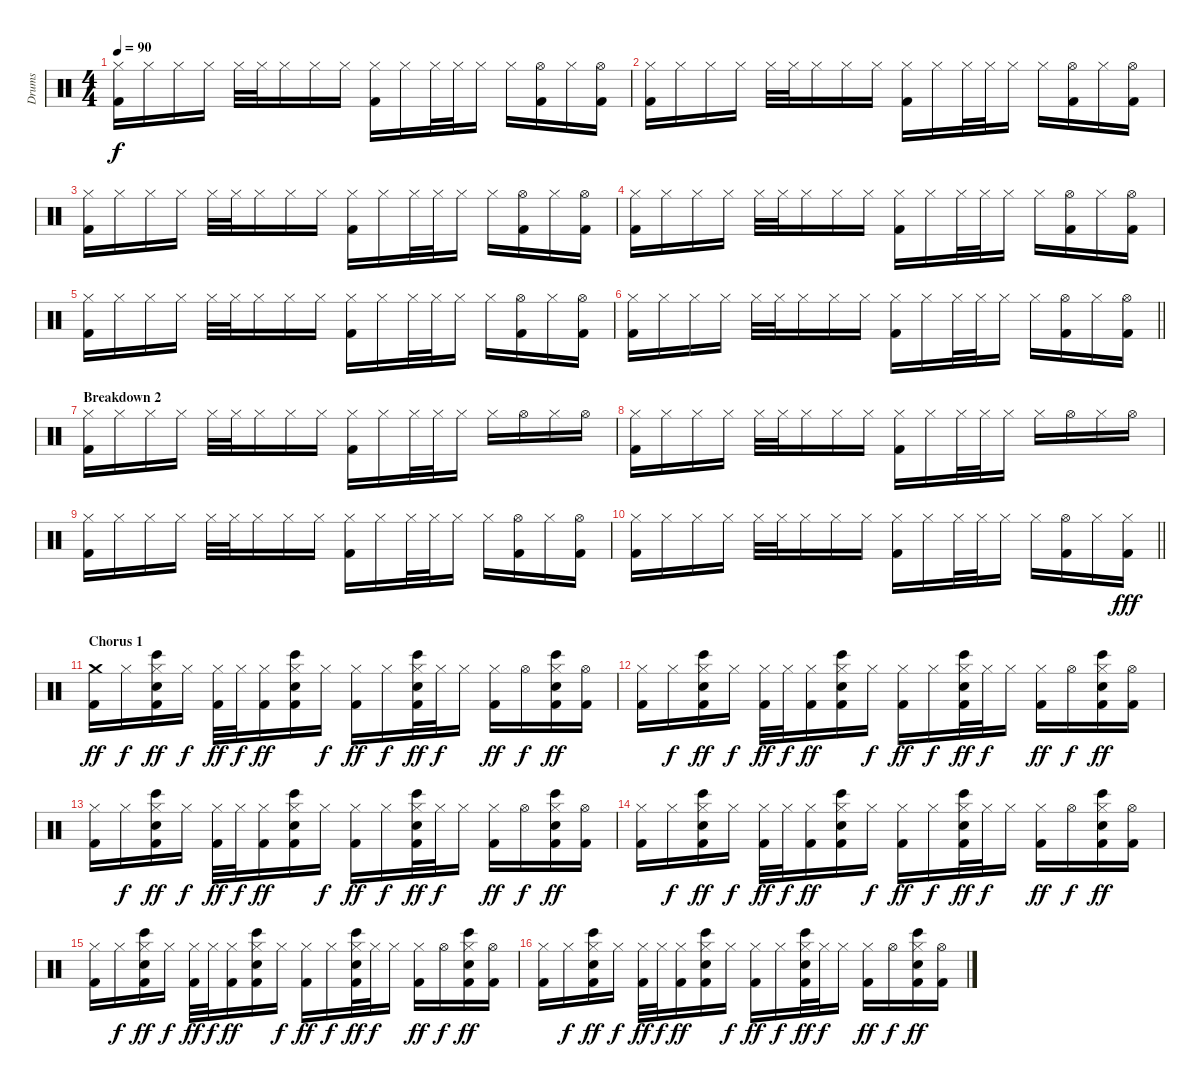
\track ("Drums" "Drums") {instrument percussion}
\staff {score}
\articulation defaults
\ts (4 4)
\tempo 90
\clef neutral
\ks c
("Hi-Hat (closed)" "Kick (hit) 2").16{dy f} "Hi-Hat (closed)".16 "Hi-Hat (closed)".16 "Hi-Hat (closed)".16 "Hi-Hat (closed)".32 "Hi-Hat (closed)".32 "Hi-Hat (closed)".16 "Hi-Hat (closed)".16 "Hi-Hat (closed)".16 ("Hi-Hat (closed)" "Kick (hit) 2").16 "Hi-Hat (closed)".16 "Hi-Hat (closed)".32 "Hi-Hat (closed)".32 "Hi-Hat (closed)".16 "Hi-Hat (closed)".16 ("Hi-Hat (open)" "Kick (hit) 2").16 "Hi-Hat (closed)".16 ("Hi-Hat (open)" "Kick (hit) 2").16 |
("Hi-Hat (closed)" "Kick (hit) 2").16 "Hi-Hat (closed)".16 "Hi-Hat (closed)".16 "Hi-Hat (closed)".16 "Hi-Hat (closed)".32 "Hi-Hat (closed)".32 "Hi-Hat (closed)".16 "Hi-Hat (closed)".16 "Hi-Hat (closed)".16 ("Hi-Hat (closed)" "Kick (hit) 2").16 "Hi-Hat (closed)".16 "Hi-Hat (closed)".32 "Hi-Hat (closed)".32 "Hi-Hat (closed)".16 "Hi-Hat (closed)".16 ("Hi-Hat (open)" "Kick (hit) 2").16 "Hi-Hat (closed)".16 ("Hi-Hat (open)" "Kick (hit) 2").16 |
("Hi-Hat (closed)" "Kick (hit) 2").16 "Hi-Hat (closed)".16 "Hi-Hat (closed)".16 "Hi-Hat (closed)".16 "Hi-Hat (closed)".32 "Hi-Hat (closed)".32 "Hi-Hat (closed)".16 "Hi-Hat (closed)".16 "Hi-Hat (closed)".16 ("Hi-Hat (closed)" "Kick (hit) 2").16 "Hi-Hat (closed)".16 "Hi-Hat (closed)".32 "Hi-Hat (closed)".32 "Hi-Hat (closed)".16 "Hi-Hat (closed)".16 ("Hi-Hat (open)" "Kick (hit) 2").16 "Hi-Hat (closed)".16 ("Hi-Hat (open)" "Kick (hit) 2").16 |
("Hi-Hat (closed)" "Kick (hit) 2").16 "Hi-Hat (closed)".16 "Hi-Hat (closed)".16 "Hi-Hat (closed)".16 "Hi-Hat (closed)".32 "Hi-Hat (closed)".32 "Hi-Hat (closed)".16 "Hi-Hat (closed)".16 "Hi-Hat (closed)".16 ("Hi-Hat (closed)" "Kick (hit) 2").16 "Hi-Hat (closed)".16 "Hi-Hat (closed)".32 "Hi-Hat (closed)".32 "Hi-Hat (closed)".16 "Hi-Hat (closed)".16 ("Hi-Hat (open)" "Kick (hit) 2").16 "Hi-Hat (closed)".16 ("Hi-Hat (open)" "Kick (hit) 2").16 |
("Hi-Hat (closed)" "Kick (hit) 2").16 "Hi-Hat (closed)".16 "Hi-Hat (closed)".16 "Hi-Hat (closed)".16 "Hi-Hat (closed)".32 "Hi-Hat (closed)".32 "Hi-Hat (closed)".16 "Hi-Hat (closed)".16 "Hi-Hat (closed)".16 ("Hi-Hat (closed)" "Kick (hit) 2").16 "Hi-Hat (closed)".16 "Hi-Hat (closed)".32 "Hi-Hat (closed)".32 "Hi-Hat (closed)".16 "Hi-Hat (closed)".16 ("Hi-Hat (open)" "Kick (hit) 2").16 "Hi-Hat (closed)".16 ("Hi-Hat (open)" "Kick (hit) 2").16 |
\barLineRight lightlight
("Hi-Hat (closed)" "Kick (hit) 2").16 "Hi-Hat (closed)".16 "Hi-Hat (closed)".16 "Hi-Hat (closed)".16 "Hi-Hat (closed)".32 "Hi-Hat (closed)".32 "Hi-Hat (closed)".16 "Hi-Hat (closed)".16 "Hi-Hat (closed)".16 ("Hi-Hat (closed)" "Kick (hit) 2").16 "Hi-Hat (closed)".16 "Hi-Hat (closed)".32 "Hi-Hat (closed)".32 "Hi-Hat (closed)".16 "Hi-Hat (closed)".16 ("Hi-Hat (open)" "Kick (hit) 2").16 "Hi-Hat (closed)".16 ("Hi-Hat (open)" "Kick (hit) 2").16 |
\section ("" "Breakdown 2")
("Hi-Hat (closed)" "Kick (hit) 2").16 "Hi-Hat (closed)".16 "Hi-Hat (closed)".16 "Hi-Hat (closed)".16 "Hi-Hat (closed)".32 "Hi-Hat (closed)".32 "Hi-Hat (closed)".16 "Hi-Hat (closed)".16 "Hi-Hat (closed)".16 ("Hi-Hat (closed)" "Kick (hit) 2").16 "Hi-Hat (closed)".16 "Hi-Hat (closed)".32 "Hi-Hat (closed)".32 "Hi-Hat (closed)".16 "Hi-Hat (closed)".16 "Hi-Hat (open)".16 "Hi-Hat (closed)".16 "Hi-Hat (open)".16 |
("Hi-Hat (closed)" "Kick (hit) 2").16 "Hi-Hat (closed)".16 "Hi-Hat (closed)".16 "Hi-Hat (closed)".16 "Hi-Hat (closed)".32 "Hi-Hat (closed)".32 "Hi-Hat (closed)".16 "Hi-Hat (closed)".16 "Hi-Hat (closed)".16 ("Hi-Hat (closed)" "Kick (hit) 2").16 "Hi-Hat (closed)".16 "Hi-Hat (closed)".32 "Hi-Hat (closed)".32 "Hi-Hat (closed)".16 "Hi-Hat (closed)".16 "Hi-Hat (open)".16 "Hi-Hat (closed)".16 "Hi-Hat (open)".16 |
("Hi-Hat (closed)" "Kick (hit) 2").16 "Hi-Hat (closed)".16 "Hi-Hat (closed)".16 "Hi-Hat (closed)".16 "Hi-Hat (closed)".32 "Hi-Hat (closed)".32 "Hi-Hat (closed)".16 "Hi-Hat (closed)".16 "Hi-Hat (closed)".16 ("Hi-Hat (closed)" "Kick (hit) 2").16 "Hi-Hat (closed)".16 "Hi-Hat (closed)".32 "Hi-Hat (closed)".32 "Hi-Hat (closed)".16 "Hi-Hat (closed)".16 ("Hi-Hat (open)" "Kick (hit) 2").16 "Hi-Hat (closed)".16 ("Hi-Hat (open)" "Kick (hit) 2").16 |
\barLineRight lightlight
("Hi-Hat (closed)" "Kick (hit) 2").16 "Hi-Hat (closed)".16 "Hi-Hat (closed)".16 "Hi-Hat (closed)".16 "Hi-Hat (closed)".32 "Hi-Hat (closed)".32 "Hi-Hat (closed)".16 "Hi-Hat (closed)".16 "Hi-Hat (closed)".16 ("Hi-Hat (closed)" "Kick (hit) 2").16 "Hi-Hat (closed)".16 "Hi-Hat (closed)".32 "Hi-Hat (closed)".32 "Hi-Hat (closed)".16 "Hi-Hat (closed)".16 ("Hi-Hat (open)" "Kick (hit) 2").16 "Hi-Hat (closed)".16 ("Hi-Hat (closed)" "Kick (hit) 2").16{dy fff} |
\section ("" "Chorus 1")
("Crash medium (hit)" "Kick (hit) 2").16{dy ff} "Hi-Hat (closed)".16{dy f} ("Hi-Hat (closed)" "Electric Snare (hit)" "Bongo High (hit)" "Kick (hit) 2").16{dy ff} "Hi-Hat (closed)".16{dy f} ("Hi-Hat (closed)" "Kick (hit) 2").32{dy ff} "Hi-Hat (closed)".32{dy f} ("Hi-Hat (closed)" "Kick (hit) 2").16{dy ff} ("Hi-Hat (closed)" "Electric Snare (hit)" "Bongo High (hit)" "Kick (hit) 2").16 "Hi-Hat (closed)".16{dy f} ("Hi-Hat (closed)" "Kick (hit) 2").16{dy ff} "Hi-Hat (closed)".16{dy f} ("Hi-Hat (closed)" "Electric Snare (hit)" "Bongo High (hit)" "Kick (hit) 2").32{dy ff} "Hi-Hat (closed)".32{dy f} "Hi-Hat (closed)".16 ("Hi-Hat (closed)" "Kick (hit) 2").16{dy ff} "Hi-Hat (open)".16{dy f} ("Hi-Hat (closed)" "Electric Snare (hit)" "Bongo High (hit)" "Kick (hit) 2").16{dy ff} ("Hi-Hat (open)" "Kick (hit) 2").16 |
("Hi-Hat (closed)" "Kick (hit) 2").16 "Hi-Hat (closed)".16{dy f} ("Hi-Hat (closed)" "Electric Snare (hit)" "Bongo High (hit)" "Kick (hit) 2").16{dy ff} "Hi-Hat (closed)".16{dy f} ("Hi-Hat (closed)" "Kick (hit) 2").32{dy ff} "Hi-Hat (closed)".32{dy f} ("Hi-Hat (closed)" "Kick (hit) 2").16{dy ff} ("Hi-Hat (closed)" "Electric Snare (hit)" "Bongo High (hit)" "Kick (hit) 2").16 "Hi-Hat (closed)".16{dy f} ("Hi-Hat (closed)" "Kick (hit) 2").16{dy ff} "Hi-Hat (closed)".16{dy f} ("Hi-Hat (closed)" "Electric Snare (hit)" "Bongo High (hit)" "Kick (hit) 2").32{dy ff} "Hi-Hat (closed)".32{dy f} "Hi-Hat (closed)".16 ("Hi-Hat (closed)" "Kick (hit) 2").16{dy ff} "Hi-Hat (open)".16{dy f} ("Hi-Hat (closed)" "Electric Snare (hit)" "Bongo High (hit)" "Kick (hit) 2").16{dy ff} ("Hi-Hat (open)" "Kick (hit) 2").16 |
("Hi-Hat (closed)" "Kick (hit) 2").16 "Hi-Hat (closed)".16{dy f} ("Hi-Hat (closed)" "Electric Snare (hit)" "Bongo High (hit)" "Kick (hit) 2").16{dy ff} "Hi-Hat (closed)".16{dy f} ("Hi-Hat (closed)" "Kick (hit) 2").32{dy ff} "Hi-Hat (closed)".32{dy f} ("Hi-Hat (closed)" "Kick (hit) 2").16{dy ff} ("Hi-Hat (closed)" "Electric Snare (hit)" "Bongo High (hit)" "Kick (hit) 2").16 "Hi-Hat (closed)".16{dy f} ("Hi-Hat (closed)" "Kick (hit) 2").16{dy ff} "Hi-Hat (closed)".16{dy f} ("Hi-Hat (closed)" "Electric Snare (hit)" "Bongo High (hit)" "Kick (hit) 2").32{dy ff} "Hi-Hat (closed)".32{dy f} "Hi-Hat (closed)".16 ("Hi-Hat (closed)" "Kick (hit) 2").16{dy ff} "Hi-Hat (open)".16{dy f} ("Hi-Hat (closed)" "Electric Snare (hit)" "Bongo High (hit)" "Kick (hit) 2").16{dy ff} ("Hi-Hat (open)" "Kick (hit) 2").16 |
("Hi-Hat (closed)" "Kick (hit) 2").16 "Hi-Hat (closed)".16{dy f} ("Hi-Hat (closed)" "Electric Snare (hit)" "Bongo High (hit)" "Kick (hit) 2").16{dy ff} "Hi-Hat (closed)".16{dy f} ("Hi-Hat (closed)" "Kick (hit) 2").32{dy ff} "Hi-Hat (closed)".32{dy f} ("Hi-Hat (closed)" "Kick (hit) 2").16{dy ff} ("Hi-Hat (closed)" "Electric Snare (hit)" "Bongo High (hit)" "Kick (hit) 2").16 "Hi-Hat (closed)".16{dy f} ("Hi-Hat (closed)" "Kick (hit) 2").16{dy ff} "Hi-Hat (closed)".16{dy f} ("Hi-Hat (closed)" "Electric Snare (hit)" "Bongo High (hit)" "Kick (hit) 2").32{dy ff} "Hi-Hat (closed)".32{dy f} "Hi-Hat (closed)".16 ("Hi-Hat (closed)" "Kick (hit) 2").16{dy ff} "Hi-Hat (open)".16{dy f} ("Hi-Hat (closed)" "Electric Snare (hit)" "Bongo High (hit)" "Kick (hit) 2").16{dy ff} ("Hi-Hat (open)" "Kick (hit) 2").16 |
("Hi-Hat (closed)" "Kick (hit) 2").16 "Hi-Hat (closed)".16{dy f} ("Hi-Hat (closed)" "Electric Snare (hit)" "Bongo High (hit)" "Kick (hit) 2").16{dy ff} "Hi-Hat (closed)".16{dy f} ("Hi-Hat (closed)" "Kick (hit) 2").32{dy ff} "Hi-Hat (closed)".32{dy f} ("Hi-Hat (closed)" "Kick (hit) 2").16{dy ff} ("Hi-Hat (closed)" "Electric Snare (hit)" "Bongo High (hit)" "Kick (hit) 2").16 "Hi-Hat (closed)".16{dy f} ("Hi-Hat (closed)" "Kick (hit) 2").16{dy ff} "Hi-Hat (closed)".16{dy f} ("Hi-Hat (closed)" "Electric Snare (hit)" "Bongo High (hit)" "Kick (hit) 2").32{dy ff} "Hi-Hat (closed)".32{dy f} "Hi-Hat (closed)".16 ("Hi-Hat (closed)" "Kick (hit) 2").16{dy ff} "Hi-Hat (open)".16{dy f} ("Hi-Hat (closed)" "Electric Snare (hit)" "Bongo High (hit)" "Kick (hit) 2").16{dy ff} ("Hi-Hat (open)" "Kick (hit) 2").16 |
("Hi-Hat (closed)" "Kick (hit) 2").16 "Hi-Hat (closed)".16{dy f} ("Hi-Hat (closed)" "Electric Snare (hit)" "Bongo High (hit)" "Kick (hit) 2").16{dy ff} "Hi-Hat (closed)".16{dy f} ("Hi-Hat (closed)" "Kick (hit) 2").32{dy ff} "Hi-Hat (closed)".32{dy f} ("Hi-Hat (closed)" "Kick (hit) 2").16{dy ff} ("Hi-Hat (closed)" "Electric Snare (hit)" "Bongo High (hit)" "Kick (hit) 2").16 "Hi-Hat (closed)".16{dy f} ("Hi-Hat (closed)" "Kick (hit) 2").16{dy ff} "Hi-Hat (closed)".16{dy f} ("Hi-Hat (closed)" "Electric Snare (hit)" "Bongo High (hit)" "Kick (hit) 2").32{dy ff} "Hi-Hat (closed)".32{dy f} "Hi-Hat (closed)".16 ("Hi-Hat (closed)" "Kick (hit) 2").16{dy ff} "Hi-Hat (open)".16{dy f} ("Hi-Hat (closed)" "Electric Snare (hit)" "Bongo High (hit)" "Kick (hit) 2").16{dy ff} ("Hi-Hat (open)" "Kick (hit) 2").16
